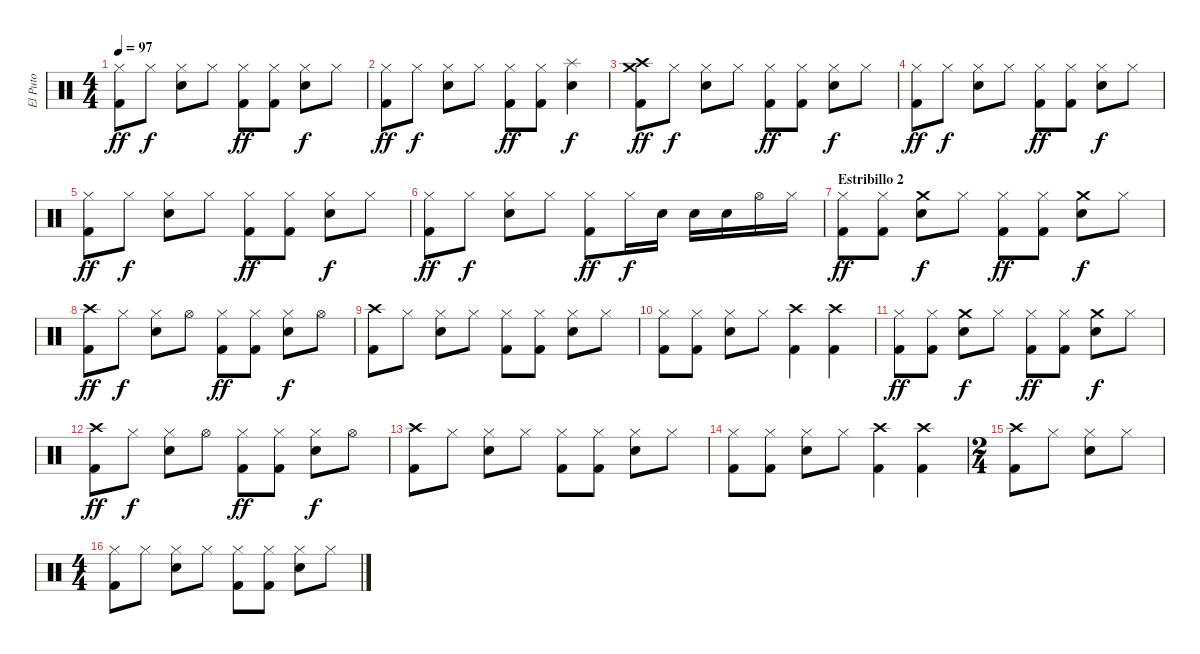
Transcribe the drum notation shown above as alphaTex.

\track ("El Puto" "El Puto") {instrument percussion}
\staff {score}
\articulation defaults
\ts (4 4)
\tempo 97
\clef neutral
\ks c
("Hi-Hat (closed)" "Kick (hit) 2").8{dy ff} "Hi-Hat (closed)".8{dy f} ("Hi-Hat (closed)" "Snare (hit) 2").8 "Hi-Hat (closed)".8 ("Hi-Hat (closed)" "Kick (hit) 2").8{dy ff} ("Hi-Hat (closed)" "Kick (hit) 2").8 ("Hi-Hat (closed)" "Snare (hit) 2").8{dy f} "Hi-Hat (closed)".8 |
("Hi-Hat (closed)" "Kick (hit) 2").8{dy ff} "Hi-Hat (closed)".8{dy f} ("Hi-Hat (closed)" "Snare (hit) 2").8 "Hi-Hat (closed)".8 ("Hi-Hat (closed)" "Kick (hit) 2").8{dy ff} ("Hi-Hat (closed)" "Kick (hit) 2").8 ("Splash (hit)" "Snare (hit) 2").4{dy f} |
("Crash high (hit)" "Crash medium (hit)" "Kick (hit) 2").8{dy ff} "Hi-Hat (closed)".8{dy f} ("Hi-Hat (closed)" "Snare (hit) 2").8 "Hi-Hat (closed)".8 ("Hi-Hat (closed)" "Kick (hit) 2").8{dy ff} ("Hi-Hat (closed)" "Kick (hit) 2").8 ("Hi-Hat (closed)" "Snare (hit) 2").8{dy f} "Hi-Hat (closed)".8 |
("Hi-Hat (closed)" "Kick (hit) 2").8{dy ff} "Hi-Hat (closed)".8{dy f} ("Hi-Hat (closed)" "Snare (hit) 2").8 "Hi-Hat (closed)".8 ("Hi-Hat (closed)" "Kick (hit) 2").8{dy ff} ("Hi-Hat (closed)" "Kick (hit) 2").8 ("Hi-Hat (closed)" "Snare (hit) 2").8{dy f} "Hi-Hat (closed)".8 |
("Hi-Hat (closed)" "Kick (hit) 2").8{dy ff} "Hi-Hat (closed)".8{dy f} ("Hi-Hat (closed)" "Snare (hit) 2").8 "Hi-Hat (closed)".8 ("Hi-Hat (closed)" "Kick (hit) 2").8{dy ff} ("Hi-Hat (closed)" "Kick (hit) 2").8 ("Hi-Hat (closed)" "Snare (hit) 2").8{dy f} "Hi-Hat (closed)".8 |
("Hi-Hat (closed)" "Kick (hit) 2").8{dy ff} "Hi-Hat (closed)".8{dy f} ("Hi-Hat (closed)" "Snare (hit) 2").8 "Hi-Hat (closed)".8 ("Hi-Hat (closed)" "Kick (hit) 2").8{dy ff} "Hi-Hat (closed)".16{dy f} "Snare (hit) 2".16 "Snare (hit) 2".16 "Snare (hit) 2".16 "Hi-Hat (open)".16 "Hi-Hat (closed)".16 |
\section ("" "Estribillo 2")
("Hi-Hat (closed)" "Kick (hit) 2").8{dy ff} ("Hi-Hat (closed)" "Kick (hit) 2").8 ("Crash medium (hit)" "Snare (hit) 2").8{dy f} "Hi-Hat (closed)".8 ("Hi-Hat (closed)" "Kick (hit) 2").8{dy ff} ("Hi-Hat (closed)" "Kick (hit) 2").8 ("Crash medium (hit)" "Snare (hit) 2").8{dy f} "Hi-Hat (closed)".8 |
("Crash high (hit)" "Kick (hit) 2").8{dy ff} "Hi-Hat (closed)".8{dy f} ("Hi-Hat (closed)" "Snare (hit) 2").8 "Hi-Hat (open)".8 ("Hi-Hat (closed)" "Kick (hit) 2").8{dy ff} ("Hi-Hat (closed)" "Kick (hit) 2").8 ("Hi-Hat (closed)" "Snare (hit) 2").8{dy f} "Hi-Hat (open)".8 |
("Crash high (hit)" "Kick (hit) 2").8 "Hi-Hat (closed)".8 ("Hi-Hat (closed)" "Snare (hit) 2").8 "Hi-Hat (closed)".8 ("Hi-Hat (closed)" "Kick (hit) 2").8 ("Hi-Hat (closed)" "Kick (hit) 2").8 ("Hi-Hat (closed)" "Snare (hit) 2").8 "Hi-Hat (closed)".8 |
("Hi-Hat (closed)" "Kick (hit) 2").8 ("Hi-Hat (closed)" "Kick (hit) 2").8 ("Hi-Hat (closed)" "Snare (hit) 2").8 "Hi-Hat (closed)".8 ("Crash high (hit)" "Kick (hit) 2").4 ("Crash high (hit)" "Kick (hit) 2").4 |
("Hi-Hat (closed)" "Kick (hit) 2").8{dy ff} ("Hi-Hat (closed)" "Kick (hit) 2").8 ("Crash medium (hit)" "Snare (hit) 2").8{dy f} "Hi-Hat (closed)".8 ("Hi-Hat (closed)" "Kick (hit) 2").8{dy ff} ("Hi-Hat (closed)" "Kick (hit) 2").8 ("Crash medium (hit)" "Snare (hit) 2").8{dy f} "Hi-Hat (closed)".8 |
("Crash high (hit)" "Kick (hit) 2").8{dy ff} "Hi-Hat (closed)".8{dy f} ("Hi-Hat (closed)" "Snare (hit) 2").8 "Hi-Hat (open)".8 ("Hi-Hat (closed)" "Kick (hit) 2").8{dy ff} ("Hi-Hat (closed)" "Kick (hit) 2").8 ("Hi-Hat (closed)" "Snare (hit) 2").8{dy f} "Hi-Hat (open)".8 |
("Crash high (hit)" "Kick (hit) 2").8 "Hi-Hat (closed)".8 ("Hi-Hat (closed)" "Snare (hit) 2").8 "Hi-Hat (closed)".8 ("Hi-Hat (closed)" "Kick (hit) 2").8 ("Hi-Hat (closed)" "Kick (hit) 2").8 ("Hi-Hat (closed)" "Snare (hit) 2").8 "Hi-Hat (closed)".8 |
("Hi-Hat (closed)" "Kick (hit) 2").8 ("Hi-Hat (closed)" "Kick (hit) 2").8 ("Hi-Hat (closed)" "Snare (hit) 2").8 "Hi-Hat (closed)".8 ("Crash high (hit)" "Kick (hit) 2").4 ("Crash high (hit)" "Kick (hit) 2").4 |
\ts (2 4)
("Crash high (hit)" "Kick (hit) 2").8 "Hi-Hat (closed)".8 ("Hi-Hat (closed)" "Snare (hit) 2").8 "Hi-Hat (closed)".8 |
\ts (4 4)
("Hi-Hat (closed)" "Kick (hit) 2").8 "Hi-Hat (closed)".8 ("Hi-Hat (closed)" "Snare (hit) 2").8 "Hi-Hat (closed)".8 ("Hi-Hat (closed)" "Kick (hit) 2").8 ("Hi-Hat (closed)" "Kick (hit) 2").8 ("Hi-Hat (closed)" "Snare (hit) 2").8 "Hi-Hat (closed)".8
